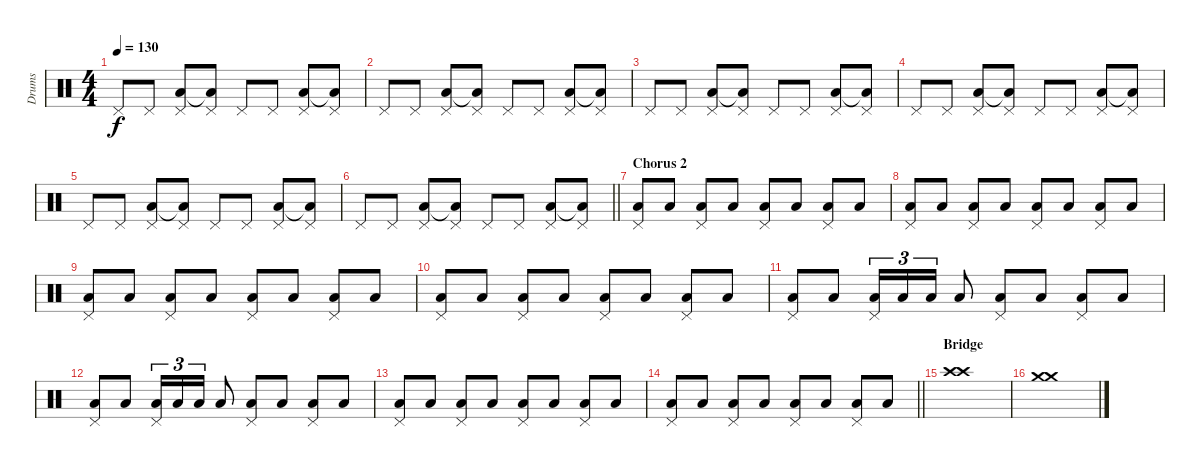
\track ("Drums" "Drums") {instrument percussion}
\staff {score}
\articulation defaults
\ts (4 4)
\tempo 130
\clef neutral
\ks c "Pedal Hi-Hat (hit)".8{dy f} "Pedal Hi-Hat (hit)".8
("Pedal Hi-Hat (hit)" "Low Floor Tom (hit)").8 ("Pedal Hi-Hat (hit)" "Low Floor Tom (hit)"{t}).8 "Pedal Hi-Hat (hit)".8 "Pedal Hi-Hat (hit)".8 ("Pedal Hi-Hat (hit)" "Low Floor Tom (hit)").8 ("Pedal Hi-Hat (hit)" "Low Floor Tom (hit)"{t}).8 |
"Pedal Hi-Hat (hit)".8 "Pedal Hi-Hat (hit)".8 ("Pedal Hi-Hat (hit)" "Low Floor Tom (hit)").8 ("Pedal Hi-Hat (hit)" "Low Floor Tom (hit)"{t}).8 "Pedal Hi-Hat (hit)".8 "Pedal Hi-Hat (hit)".8 ("Pedal Hi-Hat (hit)" "Low Floor Tom (hit)").8 ("Pedal Hi-Hat (hit)" "Low Floor Tom (hit)"{t}).8 |
"Pedal Hi-Hat (hit)".8 "Pedal Hi-Hat (hit)".8 ("Pedal Hi-Hat (hit)" "Low Floor Tom (hit)").8 ("Pedal Hi-Hat (hit)" "Low Floor Tom (hit)"{t}).8 "Pedal Hi-Hat (hit)".8 "Pedal Hi-Hat (hit)".8 ("Pedal Hi-Hat (hit)" "Low Floor Tom (hit)").8 ("Pedal Hi-Hat (hit)" "Low Floor Tom (hit)"{t}).8 |
"Pedal Hi-Hat (hit)".8 "Pedal Hi-Hat (hit)".8 ("Pedal Hi-Hat (hit)" "Low Floor Tom (hit)").8 ("Pedal Hi-Hat (hit)" "Low Floor Tom (hit)"{t}).8 "Pedal Hi-Hat (hit)".8 "Pedal Hi-Hat (hit)".8 ("Pedal Hi-Hat (hit)" "Low Floor Tom (hit)").8 ("Pedal Hi-Hat (hit)" "Low Floor Tom (hit)"{t}).8 |
"Pedal Hi-Hat (hit)".8 "Pedal Hi-Hat (hit)".8 ("Pedal Hi-Hat (hit)" "Low Floor Tom (hit)").8 ("Pedal Hi-Hat (hit)" "Low Floor Tom (hit)"{t}).8 "Pedal Hi-Hat (hit)".8 "Pedal Hi-Hat (hit)".8 ("Pedal Hi-Hat (hit)" "Low Floor Tom (hit)").8 ("Pedal Hi-Hat (hit)" "Low Floor Tom (hit)"{t}).8 |
\barLineRight lightlight "Pedal Hi-Hat (hit)".8 "Pedal Hi-Hat (hit)".8
("Pedal Hi-Hat (hit)" "Low Floor Tom (hit)").8 ("Pedal Hi-Hat (hit)" "Low Floor Tom (hit)"{t}).8 "Pedal Hi-Hat (hit)".8 "Pedal Hi-Hat (hit)".8 ("Pedal Hi-Hat (hit)" "Low Floor Tom (hit)").8 ("Pedal Hi-Hat (hit)" "Low Floor Tom (hit)"{t}).8 |
\section ("" "Chorus 2")
("Pedal Hi-Hat (hit)" "Low Floor Tom (hit)").8 "Low Floor Tom (hit)".8 ("Pedal Hi-Hat (hit)" "Low Floor Tom (hit)").8 "Low Floor Tom (hit)".8 ("Pedal Hi-Hat (hit)" "Low Floor Tom (hit)").8 "Low Floor Tom (hit)".8 ("Pedal Hi-Hat (hit)" "Low Floor Tom (hit)").8 "Low Floor Tom (hit)".8 |
("Pedal Hi-Hat (hit)" "Low Floor Tom (hit)").8 "Low Floor Tom (hit)".8 ("Pedal Hi-Hat (hit)" "Low Floor Tom (hit)").8 "Low Floor Tom (hit)".8 ("Pedal Hi-Hat (hit)" "Low Floor Tom (hit)").8 "Low Floor Tom (hit)".8 ("Pedal Hi-Hat (hit)" "Low Floor Tom (hit)").8 "Low Floor Tom (hit)".8 |
("Pedal Hi-Hat (hit)" "Low Floor Tom (hit)").8 "Low Floor Tom (hit)".8 ("Pedal Hi-Hat (hit)" "Low Floor Tom (hit)").8 "Low Floor Tom (hit)".8 ("Pedal Hi-Hat (hit)" "Low Floor Tom (hit)").8 "Low Floor Tom (hit)".8 ("Pedal Hi-Hat (hit)" "Low Floor Tom (hit)").8 "Low Floor Tom (hit)".8 |
("Pedal Hi-Hat (hit)" "Low Floor Tom (hit)").8 "Low Floor Tom (hit)".8 ("Pedal Hi-Hat (hit)" "Low Floor Tom (hit)").8 "Low Floor Tom (hit)".8 ("Pedal Hi-Hat (hit)" "Low Floor Tom (hit)").8 "Low Floor Tom (hit)".8 ("Pedal Hi-Hat (hit)" "Low Floor Tom (hit)").8 "Low Floor Tom (hit)".8 |
("Pedal Hi-Hat (hit)" "Low Floor Tom (hit)").8 "Low Floor Tom (hit)".8 ("Pedal Hi-Hat (hit)" "Low Floor Tom (hit)").16{tu (3 2)} "Low Floor Tom (hit)".16{tu (3 2)} "Low Floor Tom (hit)".16{tu (3 2)} "Low Floor Tom (hit)".8 ("Pedal Hi-Hat (hit)" "Low Floor Tom (hit)").8 "Low Floor Tom (hit)".8 ("Pedal Hi-Hat (hit)" "Low Floor Tom (hit)").8 "Low Floor Tom (hit)".8 |
("Pedal Hi-Hat (hit)" "Low Floor Tom (hit)").8 "Low Floor Tom (hit)".8 ("Pedal Hi-Hat (hit)" "Low Floor Tom (hit)").16{tu (3 2)} "Low Floor Tom (hit)".16{tu (3 2)} "Low Floor Tom (hit)".16{tu (3 2)} "Low Floor Tom (hit)".8 ("Pedal Hi-Hat (hit)" "Low Floor Tom (hit)").8 "Low Floor Tom (hit)".8 ("Pedal Hi-Hat (hit)" "Low Floor Tom (hit)").8 "Low Floor Tom (hit)".8 |
("Pedal Hi-Hat (hit)" "Low Floor Tom (hit)").8 "Low Floor Tom (hit)".8 ("Pedal Hi-Hat (hit)" "Low Floor Tom (hit)").8 "Low Floor Tom (hit)".8 ("Pedal Hi-Hat (hit)" "Low Floor Tom (hit)").8 "Low Floor Tom (hit)".8 ("Pedal Hi-Hat (hit)" "Low Floor Tom (hit)").8 "Low Floor Tom (hit)".8 |
\barLineRight lightlight
("Pedal Hi-Hat (hit)" "Low Floor Tom (hit)").8 "Low Floor Tom (hit)".8 ("Pedal Hi-Hat (hit)" "Low Floor Tom (hit)").8 "Low Floor Tom (hit)".8 ("Pedal Hi-Hat (hit)" "Low Floor Tom (hit)").8 "Low Floor Tom (hit)".8 ("Pedal Hi-Hat (hit)" "Low Floor Tom (hit)").8 "Low Floor Tom (hit)".8 |
\section ("" "Bridge")
("Crash high (hit)" "Crash high (hit)").1 |
("Crash medium (hit)" "Crash medium (hit)").1
